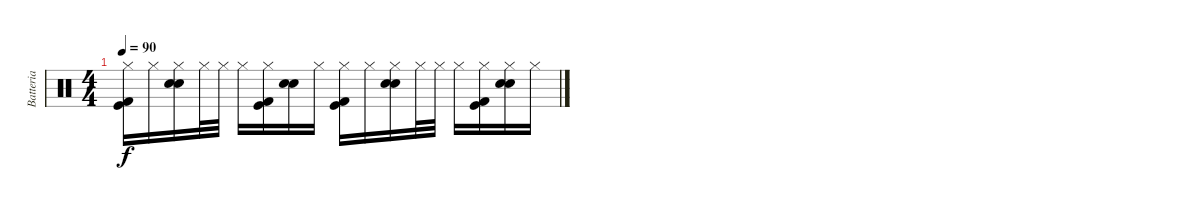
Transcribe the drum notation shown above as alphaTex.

\track ("Batteria" "Batteria") {instrument percussion}
\staff {score}
\articulation defaults
\ts (4 4)
\tempo 90
\clef neutral
\ks c
("Hi-Hat (closed)" "Kick (hit)" "Kick (hit) 2").16{dy f} "Hi-Hat (closed)".16 ("Hi-Hat (closed)" "Snare (hit) 2" "Electric Snare (hit)").16 "Hi-Hat (closed)".32 "Hi-Hat (closed)".32 "Hi-Hat (closed)".16 ("Hi-Hat (closed)" "Kick (hit) 2" "Kick (hit)").16 ("Snare (hit) 2" "Electric Snare (hit)").16 "Hi-Hat (closed)".16 ("Hi-Hat (closed)" "Kick (hit) 2" "Kick (hit)").16 "Hi-Hat (closed)".16 ("Hi-Hat (closed)" "Snare (hit) 2" "Electric Snare (hit)").16 "Hi-Hat (closed)".32 "Hi-Hat (closed)".32 "Hi-Hat (closed)".16 ("Hi-Hat (closed)" "Kick (hit) 2" "Kick (hit)").16 ("Hi-Hat (closed)" "Snare (hit) 2" "Electric Snare (hit)").16 "Hi-Hat (closed)".16
